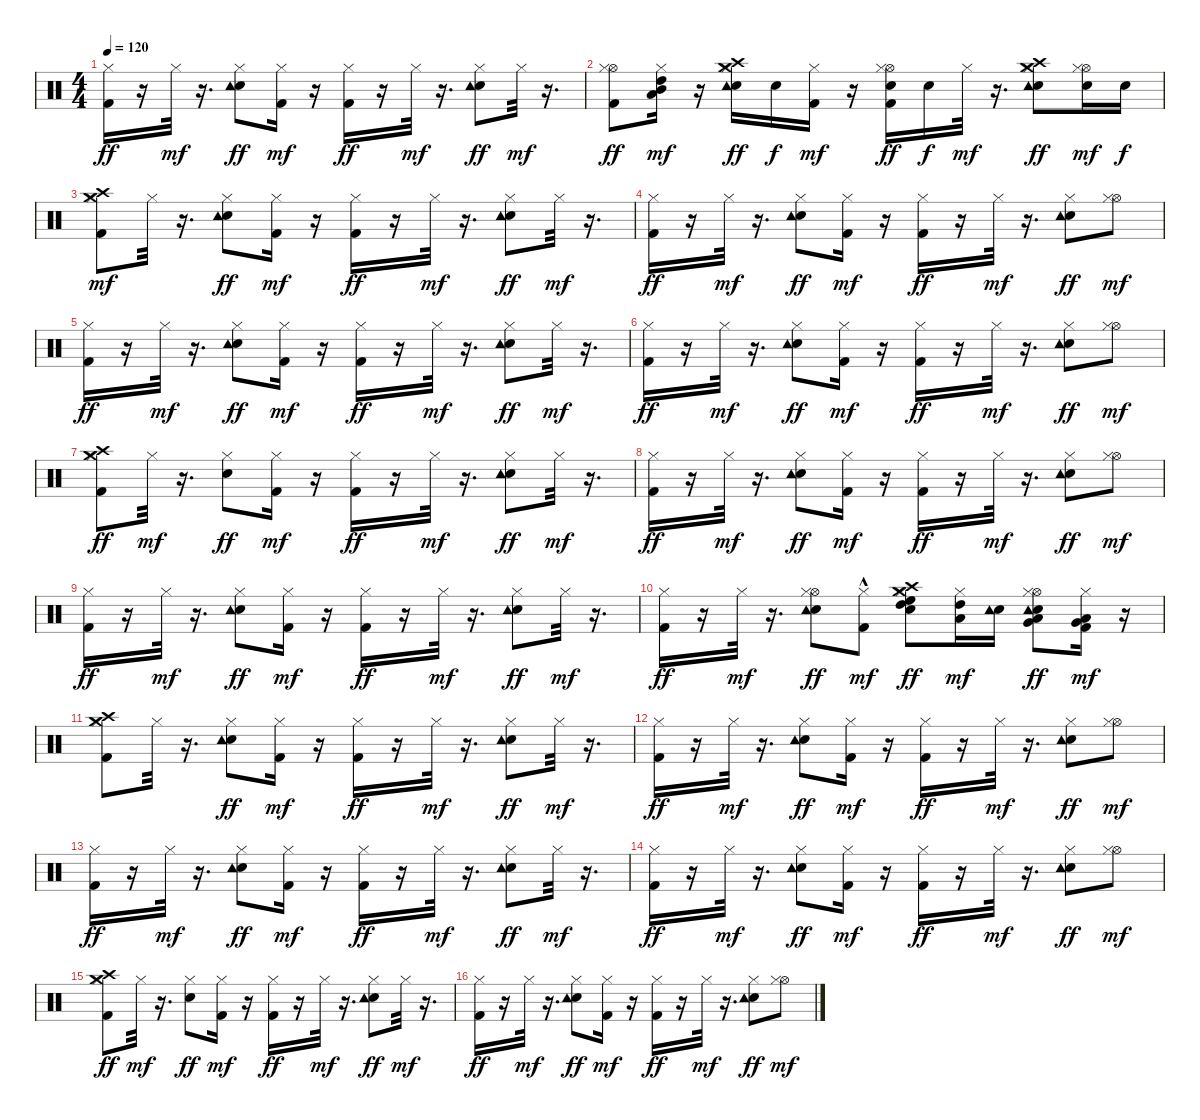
\track "" {instrument percussion}
\staff {score}
\articulation defaults
\ts (4 4)
\tempo 120
\clef neutral
\ks c
("Hi-Hat (closed)" "Kick (hit) 2").16{dy ff} r.16 "Hi-Hat (closed)".32{dy mf} r.16{d} ("Snare (hit) 2" "Tambourine (hit)" "Hi-Hat (closed)").8{dy ff} ("Hi-Hat (closed)" "Kick (hit) 2").16{dy mf} r.16 ("Hi-Hat (closed)" "Kick (hit) 2").16{dy ff} r.16 "Hi-Hat (closed)".32{dy mf} r.16{d} ("Snare (hit) 2" "Tambourine (hit)" "Hi-Hat (closed)").8{dy ff} "Hi-Hat (closed)".32{dy mf} r.16{d} |
("Hi-Hat (open)" "Hi-Hat (closed)" "Kick (hit) 2").8{dy ff} ("High Tom (hit)" "Mid Tom (hit)" "Low Tom (hit)" "Hi-Hat (closed)").16{dy mf} r.16 ("Crash medium (hit)" "Crash high (hit)" "Snare (hit) 2" "Tambourine (hit)" "Hi-Hat (closed)").16{dy ff} "Snare (hit) 2".16{dy f} ("Hi-Hat (closed)" "Kick (hit) 2").16{dy mf} r.16 ("Hi-Hat (open)" "Snare (hit) 2" "Hi-Hat (closed)" "Kick (hit) 2").16{dy ff} "Snare (hit) 2".16{dy f} "Hi-Hat (closed)".32{dy mf} r.16{d} ("Crash medium (hit)" "Crash high (hit)" "Snare (hit) 2" "Tambourine (hit)" "Hi-Hat (closed)").8{dy ff} ("Hi-Hat (open)" "Snare (hit) 2" "Hi-Hat (closed)").16{dy mf} "Snare (hit) 2".16{dy f} |
("Hi-Hat (closed)" "Crash medium (hit)" "Crash high (hit)" "Kick (hit) 2").8{dy mf} "Hi-Hat (closed)".32 r.16{d} ("Snare (hit) 2" "Tambourine (hit)" "Hi-Hat (closed)").8{dy ff} ("Hi-Hat (closed)" "Kick (hit) 2").16{dy mf} r.16 ("Hi-Hat (closed)" "Kick (hit) 2").16{dy ff} r.16 "Hi-Hat (closed)".32{dy mf} r.16{d} ("Snare (hit) 2" "Tambourine (hit)" "Hi-Hat (closed)").8{dy ff} "Hi-Hat (closed)".32{dy mf} r.16{d} |
("Hi-Hat (closed)" "Kick (hit) 2").16{dy ff} r.16 "Hi-Hat (closed)".32{dy mf} r.16{d} ("Snare (hit) 2" "Tambourine (hit)" "Hi-Hat (closed)").8{dy ff} ("Hi-Hat (closed)" "Kick (hit) 2").16{dy mf} r.16 ("Hi-Hat (closed)" "Kick (hit) 2").16{dy ff} r.16 "Hi-Hat (closed)".32{dy mf} r.16{d} ("Snare (hit) 2" "Tambourine (hit)" "Hi-Hat (closed)").8{dy ff} ("Hi-Hat (open)" "Hi-Hat (closed)").8{dy mf} |
("Hi-Hat (closed)" "Kick (hit) 2").16{dy ff} r.16 "Hi-Hat (closed)".32{dy mf} r.16{d} ("Snare (hit) 2" "Tambourine (hit)" "Hi-Hat (closed)").8{dy ff} ("Hi-Hat (closed)" "Kick (hit) 2").16{dy mf} r.16 ("Hi-Hat (closed)" "Kick (hit) 2").16{dy ff} r.16 "Hi-Hat (closed)".32{dy mf} r.16{d} ("Snare (hit) 2" "Tambourine (hit)" "Hi-Hat (closed)").8{dy ff} "Hi-Hat (closed)".32{dy mf} r.16{d} |
("Hi-Hat (closed)" "Kick (hit) 2").16{dy ff} r.16 "Hi-Hat (closed)".32{dy mf} r.16{d} ("Snare (hit) 2" "Tambourine (hit)" "Hi-Hat (closed)").8{dy ff} ("Hi-Hat (closed)" "Kick (hit) 2").16{dy mf} r.16 ("Hi-Hat (closed)" "Kick (hit) 2").16{dy ff} r.16 "Hi-Hat (closed)".32{dy mf} r.16{d} ("Snare (hit) 2" "Tambourine (hit)" "Hi-Hat (closed)").8{dy ff} ("Hi-Hat (open)" "Hi-Hat (closed)").8{dy mf} |
("Crash medium (hit)" "Crash high (hit)" "Hi-Hat (closed)" "Kick (hit) 2").8{dy ff} "Hi-Hat (closed)".32{dy mf} r.16{d} ("Snare (hit) 2" "Hi-Hat (closed)").8{dy ff} ("Hi-Hat (closed)" "Kick (hit) 2").16{dy mf} r.16 ("Hi-Hat (closed)" "Kick (hit) 2").16{dy ff} r.16 "Hi-Hat (closed)".32{dy mf} r.16{d} ("Snare (hit) 2" "Tambourine (hit)" "Hi-Hat (closed)").8{dy ff} "Hi-Hat (closed)".32{dy mf} r.16{d} |
("Hi-Hat (closed)" "Kick (hit) 2").16{dy ff} r.16 "Hi-Hat (closed)".32{dy mf} r.16{d} ("Snare (hit) 2" "Tambourine (hit)" "Hi-Hat (closed)").8{dy ff} ("Hi-Hat (closed)" "Kick (hit) 2").16{dy mf} r.16 ("Hi-Hat (closed)" "Kick (hit) 2").16{dy ff} r.16 "Hi-Hat (closed)".32{dy mf} r.16{d} ("Snare (hit) 2" "Tambourine (hit)" "Hi-Hat (closed)").8{dy ff} ("Hi-Hat (open)" "Hi-Hat (closed)").8{dy mf} |
("Hi-Hat (closed)" "Kick (hit) 2").16{dy ff} r.16 "Hi-Hat (closed)".32{dy mf} r.16{d} ("Snare (hit) 2" "Tambourine (hit)" "Hi-Hat (closed)").8{dy ff} ("Hi-Hat (closed)" "Kick (hit) 2").16{dy mf} r.16 ("Hi-Hat (closed)" "Kick (hit) 2").16{dy ff} r.16 "Hi-Hat (closed)".32{dy mf} r.16{d} ("Snare (hit) 2" "Tambourine (hit)" "Hi-Hat (closed)").8{dy ff} "Hi-Hat (closed)".32{dy mf} r.16{d} |
("Hi-Hat (closed)" "Kick (hit) 2").16{dy ff} r.16 "Hi-Hat (closed)".32{dy mf} r.16{d} ("Hi-Hat (open)" "Snare (hit) 2" "Tambourine (hit)" "Hi-Hat (closed)").8{dy ff} ("Hi-Hat (closed)" "Kick (hit) 2"{hac}).8{dy mf} ("High Floor Tom (hit)" "High Tom (hit)" "Snare (hit) 2" "Crash high (hit)" "Crash medium (hit)" "Hi-Hat (closed)").8{dy ff} ("Low Tom (hit)" "High Tom (hit)" "Hi-Hat (closed)").16{dy mf} ("Snare (hit) 2" "Tambourine (hit)").16 ("Very Low Tom (hit)" "Low Tom (hit)" "Snare (hit) 2" "Tambourine (hit)" "Hi-Hat (open)" "Hi-Hat (closed)").8{dy ff} ("Very Low Tom (hit)" "Low Floor Tom (hit)" "Hi-Hat (closed)" "Kick (hit) 2").16{dy mf} r.16 |
("Hi-Hat (closed)" "Crash medium (hit)" "Crash high (hit)" "Kick (hit) 2").8 "Hi-Hat (closed)".32 r.16{d} ("Snare (hit) 2" "Tambourine (hit)" "Hi-Hat (closed)").8{dy ff} ("Hi-Hat (closed)" "Kick (hit) 2").16{dy mf} r.16 ("Hi-Hat (closed)" "Kick (hit) 2").16{dy ff} r.16 "Hi-Hat (closed)".32{dy mf} r.16{d} ("Snare (hit) 2" "Tambourine (hit)" "Hi-Hat (closed)").8{dy ff} "Hi-Hat (closed)".32{dy mf} r.16{d} |
("Hi-Hat (closed)" "Kick (hit) 2").16{dy ff} r.16 "Hi-Hat (closed)".32{dy mf} r.16{d} ("Snare (hit) 2" "Tambourine (hit)" "Hi-Hat (closed)").8{dy ff} ("Hi-Hat (closed)" "Kick (hit) 2").16{dy mf} r.16 ("Hi-Hat (closed)" "Kick (hit) 2").16{dy ff} r.16 "Hi-Hat (closed)".32{dy mf} r.16{d} ("Snare (hit) 2" "Tambourine (hit)" "Hi-Hat (closed)").8{dy ff} ("Hi-Hat (open)" "Hi-Hat (closed)").8{dy mf} |
("Hi-Hat (closed)" "Kick (hit) 2").16{dy ff} r.16 "Hi-Hat (closed)".32{dy mf} r.16{d} ("Snare (hit) 2" "Tambourine (hit)" "Hi-Hat (closed)").8{dy ff} ("Hi-Hat (closed)" "Kick (hit) 2").16{dy mf} r.16 ("Hi-Hat (closed)" "Kick (hit) 2").16{dy ff} r.16 "Hi-Hat (closed)".32{dy mf} r.16{d} ("Snare (hit) 2" "Tambourine (hit)" "Hi-Hat (closed)").8{dy ff} "Hi-Hat (closed)".32{dy mf} r.16{d} |
("Hi-Hat (closed)" "Kick (hit) 2").16{dy ff} r.16 "Hi-Hat (closed)".32{dy mf} r.16{d} ("Snare (hit) 2" "Tambourine (hit)" "Hi-Hat (closed)").8{dy ff} ("Hi-Hat (closed)" "Kick (hit) 2").16{dy mf} r.16 ("Hi-Hat (closed)" "Kick (hit) 2").16{dy ff} r.16 "Hi-Hat (closed)".32{dy mf} r.16{d} ("Snare (hit) 2" "Tambourine (hit)" "Hi-Hat (closed)").8{dy ff} ("Hi-Hat (open)" "Hi-Hat (closed)").8{dy mf} |
("Crash medium (hit)" "Crash high (hit)" "Hi-Hat (closed)" "Kick (hit) 2").8{dy ff} "Hi-Hat (closed)".32{dy mf} r.16{d} ("Snare (hit) 2" "Hi-Hat (closed)").8{dy ff} ("Hi-Hat (closed)" "Kick (hit) 2").16{dy mf} r.16 ("Hi-Hat (closed)" "Kick (hit) 2").16{dy ff} r.16 "Hi-Hat (closed)".32{dy mf} r.16{d} ("Snare (hit) 2" "Tambourine (hit)" "Hi-Hat (closed)").8{dy ff} "Hi-Hat (closed)".32{dy mf} r.16{d} |
("Hi-Hat (closed)" "Kick (hit) 2").16{dy ff} r.16 "Hi-Hat (closed)".32{dy mf} r.16{d} ("Snare (hit) 2" "Tambourine (hit)" "Hi-Hat (closed)").8{dy ff} ("Hi-Hat (closed)" "Kick (hit) 2").16{dy mf} r.16 ("Hi-Hat (closed)" "Kick (hit) 2").16{dy ff} r.16 "Hi-Hat (closed)".32{dy mf} r.16{d} ("Snare (hit) 2" "Tambourine (hit)" "Hi-Hat (closed)").8{dy ff} ("Hi-Hat (open)" "Hi-Hat (closed)").8{dy mf}
